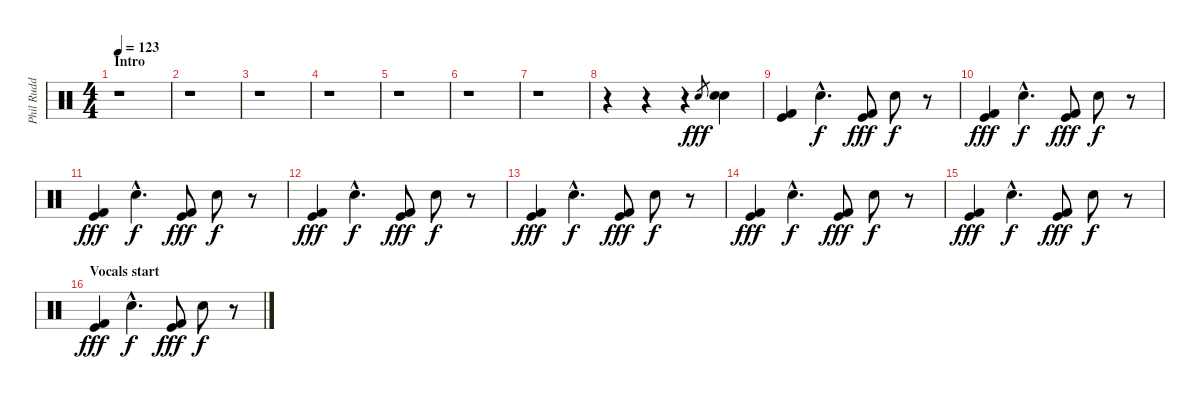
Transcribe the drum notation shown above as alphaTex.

\track ("Phil Rudd (Drums)" "Phil Rudd ") {instrument percussion}
\staff {score}
\articulation defaults
\ts (4 4)
\section ("" "Intro")
\tempo 123
\clef neutral
\ks c
r.1{dy fff} |
r.1 |
r.1 |
r.1 |
r.1 |
r.1 |
r.1 |
r.4 r.4 r.4 "Snare (hit) 2".8{gr} ("Snare (hit) 2" "Snare (hit) 2").4 |
("Kick (hit) 2" "Kick (hit)").4 "Snare (hit) 2"{hac}.4{d dy f} ("Kick (hit) 2" "Kick (hit)").8{dy fff} "Snare (hit) 2".8{dy f} r.8 |
("Kick (hit) 2" "Kick (hit)").4{dy fff} "Snare (hit) 2"{hac}.4{d dy f} ("Kick (hit) 2" "Kick (hit)").8{dy fff} "Snare (hit) 2".8{dy f} r.8 |
("Kick (hit) 2" "Kick (hit)").4{dy fff} "Snare (hit) 2"{hac}.4{d dy f} ("Kick (hit) 2" "Kick (hit)").8{dy fff} "Snare (hit) 2".8{dy f} r.8 |
("Kick (hit) 2" "Kick (hit)").4{dy fff} "Snare (hit) 2"{hac}.4{d dy f} ("Kick (hit) 2" "Kick (hit)").8{dy fff} "Snare (hit) 2".8{dy f} r.8 |
("Kick (hit) 2" "Kick (hit)").4{dy fff} "Snare (hit) 2"{hac}.4{d dy f} ("Kick (hit) 2" "Kick (hit)").8{dy fff} "Snare (hit) 2".8{dy f} r.8 |
("Kick (hit) 2" "Kick (hit)").4{dy fff} "Snare (hit) 2"{hac}.4{d dy f} ("Kick (hit) 2" "Kick (hit)").8{dy fff} "Snare (hit) 2".8{dy f} r.8 |
("Kick (hit) 2" "Kick (hit)").4{dy fff} "Snare (hit) 2"{hac}.4{d dy f} ("Kick (hit) 2" "Kick (hit)").8{dy fff} "Snare (hit) 2".8{dy f} r.8 |
\section ("" "Vocals start")
("Kick (hit) 2" "Kick (hit)").4{dy fff} "Snare (hit) 2"{hac}.4{d dy f} ("Kick (hit) 2" "Kick (hit)").8{dy fff} "Snare (hit) 2".8{dy f} r.8
